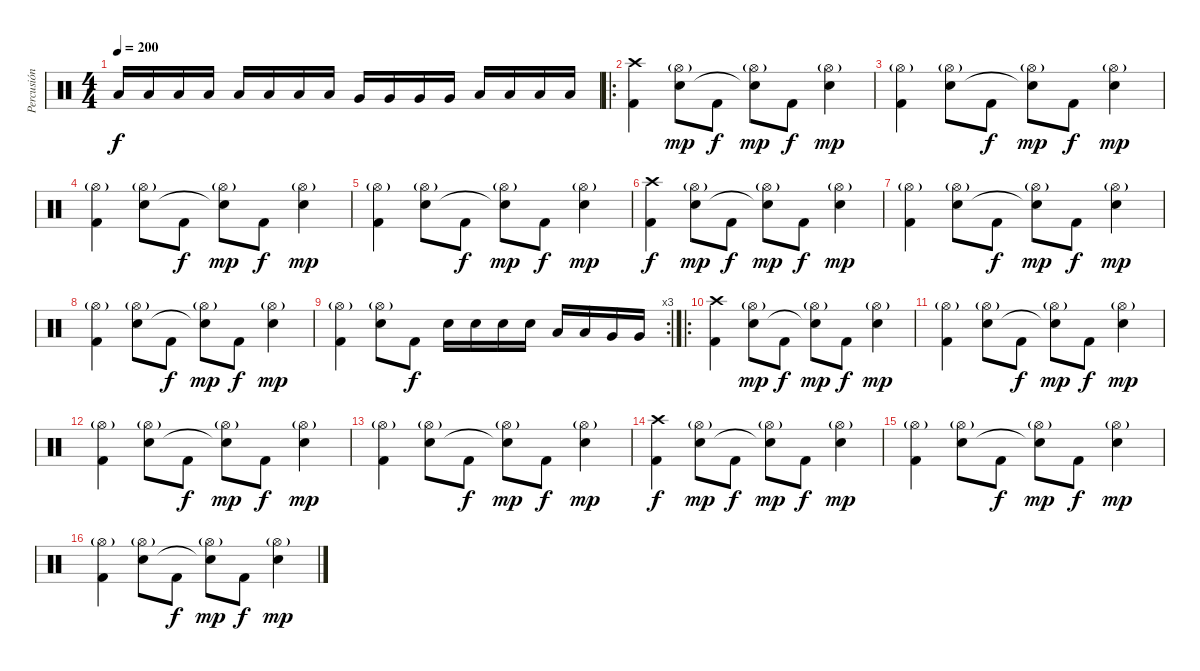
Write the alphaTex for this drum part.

\track ("Percusión" "Percusión") {instrument percussion}
\staff {score}
\articulation defaults
\ts (4 4)
\tempo 200
\clef neutral
\ks c "Low Tom (hit)".16{dy f volume 16} "Low Tom (hit)".16 "Low Tom (hit)".16 "Low Tom (hit)".16 "Low Tom (hit)".16 "Low Tom (hit)".16 "Low Tom (hit)".16 "Low Tom (hit)".16 "Very Low Tom (hit)".16 "Very Low Tom (hit)".16 "Very Low Tom (hit)".16 "Very Low Tom (hit)".16 "Low Floor Tom (hit)".16 "Low Floor Tom (hit)".16 "Low Floor Tom (hit)".16 "Low Floor Tom (hit)".16
|
\ro
("Crash high (hit)" "Kick (hit) 2").4 ("Hi-Hat (open)"{g} "Snare (hit) 2").8{dy mp} "Kick (hit) 2".8{dy f} ("Hi-Hat (open)"{g} "Snare (hit)"{t}).8{dy mp} "Kick (hit) 2".8{dy f} ("Hi-Hat (open)"{g} "Snare (hit) 2").4{dy mp} |
("Hi-Hat (open)"{g} "Kick (hit) 2").4 ("Hi-Hat (open)"{g} "Snare (hit) 2").8 "Kick (hit) 2".8{dy f} ("Hi-Hat (open)"{g} "Snare (hit)"{t}).8{dy mp} "Kick (hit) 2".8{dy f} ("Hi-Hat (open)"{g} "Snare (hit) 2").4{dy mp} |
("Hi-Hat (open)"{g} "Kick (hit) 2").4 ("Hi-Hat (open)"{g} "Snare (hit) 2").8 "Kick (hit) 2".8{dy f} ("Hi-Hat (open)"{g} "Snare (hit)"{t}).8{dy mp} "Kick (hit) 2".8{dy f} ("Hi-Hat (open)"{g} "Snare (hit) 2").4{dy mp} |
("Hi-Hat (open)"{g} "Kick (hit) 2").4 ("Hi-Hat (open)"{g} "Snare (hit) 2").8 "Kick (hit) 2".8{dy f} ("Hi-Hat (open)"{g} "Snare (hit)"{t}).8{dy mp} "Kick (hit) 2".8{dy f} ("Hi-Hat (open)"{g} "Snare (hit) 2").4{dy mp} |
("Crash high (hit)" "Kick (hit) 2").4{dy f} ("Hi-Hat (open)"{g} "Snare (hit) 2").8{dy mp} "Kick (hit) 2".8{dy f} ("Hi-Hat (open)"{g} "Snare (hit)"{t}).8{dy mp} "Kick (hit) 2".8{dy f} ("Hi-Hat (open)"{g} "Snare (hit) 2").4{dy mp} |
("Hi-Hat (open)"{g} "Kick (hit) 2").4 ("Hi-Hat (open)"{g} "Snare (hit) 2").8 "Kick (hit) 2".8{dy f} ("Hi-Hat (open)"{g} "Snare (hit)"{t}).8{dy mp} "Kick (hit) 2".8{dy f} ("Hi-Hat (open)"{g} "Snare (hit) 2").4{dy mp} |
("Hi-Hat (open)"{g} "Kick (hit) 2").4 ("Hi-Hat (open)"{g} "Snare (hit) 2").8 "Kick (hit) 2".8{dy f} ("Hi-Hat (open)"{g} "Snare (hit)"{t}).8{dy mp} "Kick (hit) 2".8{dy f} ("Hi-Hat (open)"{g} "Snare (hit) 2").4{dy mp} |
\rc 3
("Hi-Hat (open)"{g} "Kick (hit) 2").4 ("Hi-Hat (open)"{g} "Snare (hit) 2").8 "Kick (hit) 2".8{dy f} "Snare (hit) 2".16 "Snare (hit) 2".16 "Snare (hit) 2".16 "Snare (hit) 2".16 "Low Tom (hit)".16 "Low Tom (hit)".16 "Very Low Tom (hit)".16 "Very Low Tom (hit)".16 |
\ro
("Crash high (hit)" "Kick (hit) 2").4 ("Hi-Hat (open)"{g} "Snare (hit) 2").8{dy mp} "Kick (hit) 2".8{dy f} ("Hi-Hat (open)"{g} "Snare (hit)"{t}).8{dy mp} "Kick (hit) 2".8{dy f} ("Hi-Hat (open)"{g} "Snare (hit) 2").4{dy mp} |
("Hi-Hat (open)"{g} "Kick (hit) 2").4 ("Hi-Hat (open)"{g} "Snare (hit) 2").8 "Kick (hit) 2".8{dy f} ("Hi-Hat (open)"{g} "Snare (hit)"{t}).8{dy mp} "Kick (hit) 2".8{dy f} ("Hi-Hat (open)"{g} "Snare (hit) 2").4{dy mp} |
("Hi-Hat (open)"{g} "Kick (hit) 2").4 ("Hi-Hat (open)"{g} "Snare (hit) 2").8 "Kick (hit) 2".8{dy f} ("Hi-Hat (open)"{g} "Snare (hit)"{t}).8{dy mp} "Kick (hit) 2".8{dy f} ("Hi-Hat (open)"{g} "Snare (hit) 2").4{dy mp} |
("Hi-Hat (open)"{g} "Kick (hit) 2").4 ("Hi-Hat (open)"{g} "Snare (hit) 2").8 "Kick (hit) 2".8{dy f} ("Hi-Hat (open)"{g} "Snare (hit)"{t}).8{dy mp} "Kick (hit) 2".8{dy f} ("Hi-Hat (open)"{g} "Snare (hit) 2").4{dy mp} |
("Crash high (hit)" "Kick (hit) 2").4{dy f} ("Hi-Hat (open)"{g} "Snare (hit) 2").8{dy mp} "Kick (hit) 2".8{dy f} ("Hi-Hat (open)"{g} "Snare (hit)"{t}).8{dy mp} "Kick (hit) 2".8{dy f} ("Hi-Hat (open)"{g} "Snare (hit) 2").4{dy mp} |
("Hi-Hat (open)"{g} "Kick (hit) 2").4 ("Hi-Hat (open)"{g} "Snare (hit) 2").8 "Kick (hit) 2".8{dy f} ("Hi-Hat (open)"{g} "Snare (hit)"{t}).8{dy mp} "Kick (hit) 2".8{dy f} ("Hi-Hat (open)"{g} "Snare (hit) 2").4{dy mp} |
("Hi-Hat (open)"{g} "Kick (hit) 2").4 ("Hi-Hat (open)"{g} "Snare (hit) 2").8 "Kick (hit) 2".8{dy f} ("Hi-Hat (open)"{g} "Snare (hit)"{t}).8{dy mp} "Kick (hit) 2".8{dy f} ("Hi-Hat (open)"{g} "Snare (hit) 2").4{dy mp}
